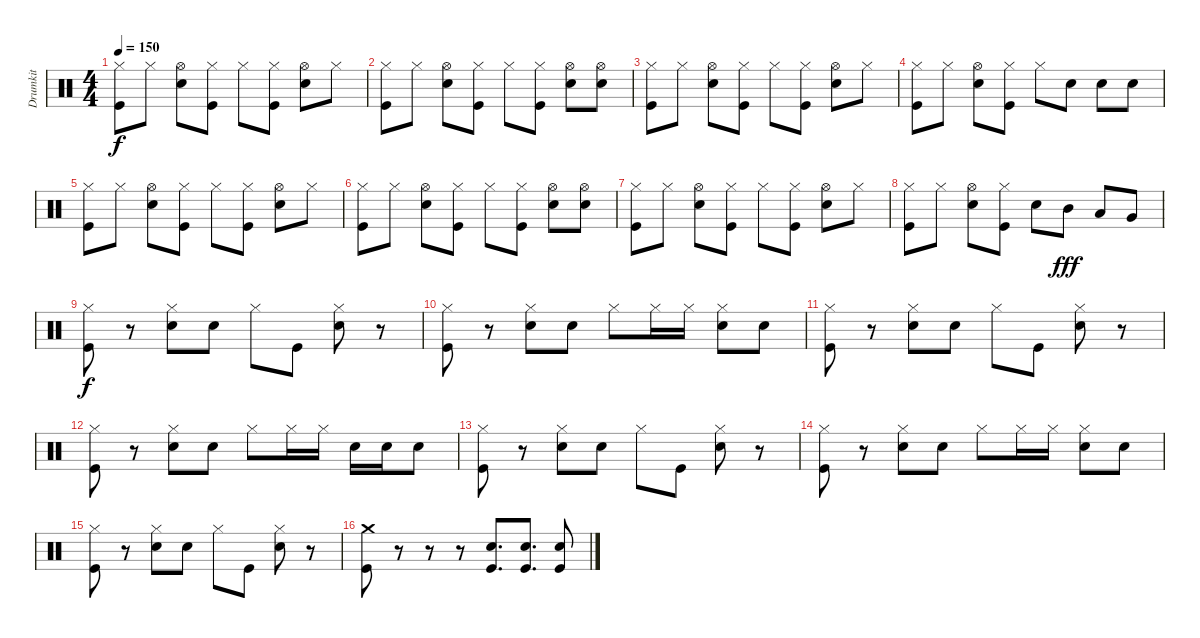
\track ("Drumkit" "Drumkit") {instrument percussion}
\staff {score}
\articulation defaults
\ts (4 4)
\tempo 150
\clef neutral
\ks c
("Kick (hit)" "Hi-Hat (closed)").8{dy f} "Hi-Hat (closed)".8 ("Snare (hit) 2" "Hi-Hat (open)").8 ("Kick (hit)" "Hi-Hat (closed)").8 "Hi-Hat (closed)".8 ("Kick (hit)" "Hi-Hat (closed)").8 ("Snare (hit) 2" "Hi-Hat (open)").8 "Hi-Hat (closed)".8 |
("Kick (hit)" "Hi-Hat (closed)").8 "Hi-Hat (closed)".8 ("Snare (hit) 2" "Hi-Hat (open)").8 ("Kick (hit)" "Hi-Hat (closed)").8 "Hi-Hat (closed)".8 ("Kick (hit)" "Hi-Hat (closed)").8 ("Snare (hit) 2" "Hi-Hat (open)").8 ("Hi-Hat (open)" "Snare (hit) 2").8 |
("Kick (hit)" "Hi-Hat (closed)").8 "Hi-Hat (closed)".8 ("Snare (hit) 2" "Hi-Hat (open)").8 ("Kick (hit)" "Hi-Hat (closed)").8 "Hi-Hat (closed)".8 ("Kick (hit)" "Hi-Hat (closed)").8 ("Snare (hit) 2" "Hi-Hat (open)").8 "Hi-Hat (closed)".8 |
("Kick (hit)" "Hi-Hat (closed)").8 "Hi-Hat (closed)".8 ("Snare (hit) 2" "Hi-Hat (open)").8 ("Kick (hit)" "Hi-Hat (closed)").8 "Hi-Hat (closed)".8 "Snare (hit) 2".8 "Snare (hit) 2".8 "Snare (hit) 2".8 |
("Kick (hit)" "Hi-Hat (closed)").8 "Hi-Hat (closed)".8 ("Snare (hit) 2" "Hi-Hat (open)").8 ("Kick (hit)" "Hi-Hat (closed)").8 "Hi-Hat (closed)".8 ("Kick (hit)" "Hi-Hat (closed)").8 ("Snare (hit) 2" "Hi-Hat (open)").8 "Hi-Hat (closed)".8 |
("Kick (hit)" "Hi-Hat (closed)").8 "Hi-Hat (closed)".8 ("Snare (hit) 2" "Hi-Hat (open)").8 ("Kick (hit)" "Hi-Hat (closed)").8 "Hi-Hat (closed)".8 ("Kick (hit)" "Hi-Hat (closed)").8 ("Snare (hit) 2" "Hi-Hat (open)").8 ("Hi-Hat (open)" "Snare (hit) 2").8 |
("Kick (hit)" "Hi-Hat (closed)").8 "Hi-Hat (closed)".8 ("Snare (hit) 2" "Hi-Hat (open)").8 ("Kick (hit)" "Hi-Hat (closed)").8 "Hi-Hat (closed)".8 ("Kick (hit)" "Hi-Hat (closed)").8 ("Snare (hit) 2" "Hi-Hat (open)").8 "Hi-Hat (closed)".8 |
("Kick (hit)" "Hi-Hat (closed)").8 "Hi-Hat (closed)".8 ("Snare (hit) 2" "Hi-Hat (open)").8 ("Kick (hit)" "Hi-Hat (closed)").8 "Snare (hit) 2".8 "Mid Tom (hit)".8{dy fff} "Low Tom (hit)".8 "Very Low Tom (hit)".8 |
("Kick (hit)" "Hi-Hat (closed)").8{dy f} r.8 ("Hi-Hat (closed)" "Snare (hit) 2").8 "Snare (hit) 2".8 "Hi-Hat (closed)".8 "Kick (hit)".8 ("Hi-Hat (closed)" "Snare (hit) 2").8 r.8 |
("Kick (hit)" "Hi-Hat (closed)").8 r.8 ("Hi-Hat (closed)" "Snare (hit) 2").8 "Snare (hit) 2".8 "Hi-Hat (closed)".8 "Hi-Hat (closed)".16 "Hi-Hat (closed)".16 ("Hi-Hat (closed)" "Snare (hit) 2").8 "Snare (hit) 2".8 |
("Kick (hit)" "Hi-Hat (closed)").8 r.8 ("Hi-Hat (closed)" "Snare (hit) 2").8 "Snare (hit) 2".8 "Hi-Hat (closed)".8 "Kick (hit)".8 ("Hi-Hat (closed)" "Snare (hit) 2").8 r.8 |
("Kick (hit)" "Hi-Hat (closed)").8 r.8 ("Hi-Hat (closed)" "Snare (hit) 2").8 "Snare (hit) 2".8 "Hi-Hat (closed)".8 "Hi-Hat (closed)".16 "Hi-Hat (closed)".16 "Snare (hit) 2".16 "Snare (hit) 2".16 "Snare (hit) 2".8 |
("Kick (hit)" "Hi-Hat (closed)").8 r.8 ("Hi-Hat (closed)" "Snare (hit) 2").8 "Snare (hit) 2".8 "Hi-Hat (closed)".8 "Kick (hit)".8 ("Hi-Hat (closed)" "Snare (hit) 2").8 r.8 |
("Kick (hit)" "Hi-Hat (closed)").8 r.8 ("Hi-Hat (closed)" "Snare (hit) 2").8 "Snare (hit) 2".8 "Hi-Hat (closed)".8 "Hi-Hat (closed)".16 "Hi-Hat (closed)".16 ("Hi-Hat (closed)" "Snare (hit) 2").8 "Snare (hit) 2".8 |
("Kick (hit)" "Hi-Hat (closed)").8 r.8 ("Hi-Hat (closed)" "Snare (hit) 2").8 "Snare (hit) 2".8 "Hi-Hat (closed)".8 "Kick (hit)".8 ("Hi-Hat (closed)" "Snare (hit) 2").8 r.8 |
("Kick (hit)" "Crash medium (hit)").8 r.8 r.8 r.8 ("Snare (hit) 2" "Kick (hit)").8{d} ("Snare (hit) 2" "Kick (hit)").8{d} ("Snare (hit) 2" "Kick (hit)").8
